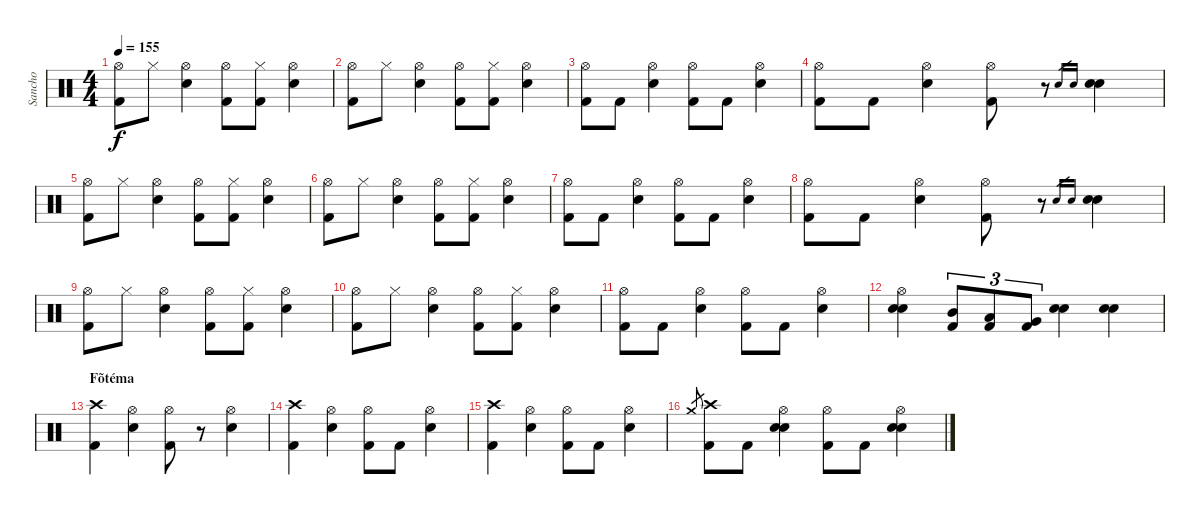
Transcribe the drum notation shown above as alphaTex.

\track ("Sancho" "Sancho") {instrument percussion}
\staff {score}
\articulation defaults
\ts (4 4)
\tempo 155
\clef neutral
\ks c
("Hi-Hat (open)" "Kick (hit) 2").8{dy f} "Hi-Hat (closed)".8 ("Hi-Hat (open)" "Electric Snare (hit)").4 ("Hi-Hat (open)" "Kick (hit) 2").8 ("Hi-Hat (closed)" "Kick (hit) 2").8 ("Hi-Hat (open)" "Electric Snare (hit)").4 |
("Hi-Hat (open)" "Kick (hit) 2").8 "Hi-Hat (closed)".8 ("Hi-Hat (open)" "Electric Snare (hit)").4 ("Hi-Hat (open)" "Kick (hit) 2").8 ("Hi-Hat (closed)" "Kick (hit) 2").8 ("Hi-Hat (open)" "Electric Snare (hit)").4 |
("Hi-Hat (open)" "Kick (hit) 2").8 "Kick (hit) 2".8 ("Hi-Hat (open)" "Electric Snare (hit)").4 ("Hi-Hat (open)" "Kick (hit) 2").8 "Kick (hit) 2".8 ("Hi-Hat (open)" "Electric Snare (hit)").4 |
("Hi-Hat (open)" "Kick (hit) 2").8 "Kick (hit) 2".8 ("Hi-Hat (open)" "Electric Snare (hit)").4 ("Hi-Hat (open)" "Kick (hit) 2").8 r.8 "Snare (hit) 2".16{gr} "Snare (hit) 2".16{gr} ("Electric Snare (hit)" "Electric Snare (hit)").4 |
("Hi-Hat (open)" "Kick (hit) 2").8 "Hi-Hat (closed)".8 ("Hi-Hat (open)" "Electric Snare (hit)").4 ("Hi-Hat (open)" "Kick (hit) 2").8 ("Hi-Hat (closed)" "Kick (hit) 2").8 ("Hi-Hat (open)" "Electric Snare (hit)").4 |
("Hi-Hat (open)" "Kick (hit) 2").8 "Hi-Hat (closed)".8 ("Hi-Hat (open)" "Electric Snare (hit)").4 ("Hi-Hat (open)" "Kick (hit) 2").8 ("Hi-Hat (closed)" "Kick (hit) 2").8 ("Hi-Hat (open)" "Electric Snare (hit)").4 |
("Hi-Hat (open)" "Kick (hit) 2").8 "Kick (hit) 2".8 ("Hi-Hat (open)" "Electric Snare (hit)").4 ("Hi-Hat (open)" "Kick (hit) 2").8 "Kick (hit) 2".8 ("Hi-Hat (open)" "Electric Snare (hit)").4 |
("Hi-Hat (open)" "Kick (hit) 2").8 "Kick (hit) 2".8 ("Hi-Hat (open)" "Electric Snare (hit)").4 ("Hi-Hat (open)" "Kick (hit) 2").8 r.8 "Snare (hit) 2".16{gr} "Snare (hit) 2".16{gr} ("Electric Snare (hit)" "Electric Snare (hit)").4 |
("Hi-Hat (open)" "Kick (hit) 2").8 "Hi-Hat (closed)".8 ("Hi-Hat (open)" "Electric Snare (hit)").4 ("Hi-Hat (open)" "Kick (hit) 2").8 ("Hi-Hat (closed)" "Kick (hit) 2").8 ("Hi-Hat (open)" "Electric Snare (hit)").4 |
("Hi-Hat (open)" "Kick (hit) 2").8 "Hi-Hat (closed)".8 ("Hi-Hat (open)" "Electric Snare (hit)").4 ("Hi-Hat (open)" "Kick (hit) 2").8 ("Hi-Hat (closed)" "Kick (hit) 2").8 ("Hi-Hat (open)" "Electric Snare (hit)").4 |
("Hi-Hat (open)" "Kick (hit) 2").8 "Kick (hit) 2".8 ("Hi-Hat (open)" "Electric Snare (hit)").4 ("Hi-Hat (open)" "Kick (hit) 2").8 "Kick (hit) 2".8 ("Hi-Hat (open)" "Electric Snare (hit)").4 |
("Hi-Hat (open)" "Electric Snare (hit)" "Electric Snare (hit)").4 ("Mid Tom (hit)" "Kick (hit) 2").8{tu (3 2)} ("Low Tom (hit)" "Kick (hit) 2").8{tu (3 2)} ("Very Low Tom (hit)" "Kick (hit) 2").8{tu (3 2)} ("Electric Snare (hit)" "Electric Snare (hit)").4 ("Electric Snare (hit)" "Electric Snare (hit)").4 |
\section ("" "Fõtéma")
("Crash high (hit)" "Kick (hit) 2").4 ("Hi-Hat (open)" "Electric Snare (hit)").4 ("Hi-Hat (open)" "Kick (hit) 2").8 r.8 ("Hi-Hat (open)" "Electric Snare (hit)").4 |
("Crash high (hit)" "Kick (hit) 2").4 ("Hi-Hat (open)" "Electric Snare (hit)").4 ("Hi-Hat (open)" "Kick (hit) 2").8 "Kick (hit) 2".8 ("Hi-Hat (open)" "Electric Snare (hit)").4 |
("Crash high (hit)" "Kick (hit) 2").4 ("Hi-Hat (open)" "Electric Snare (hit)").4 ("Hi-Hat (open)" "Kick (hit) 2").8 "Kick (hit) 2".8 ("Hi-Hat (open)" "Electric Snare (hit)").4 |
"Crash medium (hit)".8{gr} ("Crash high (hit)" "Kick (hit) 2").8 "Kick (hit) 2".8 ("Hi-Hat (open)" "Electric Snare (hit)" "Electric Snare (hit)").4 ("Hi-Hat (open)" "Kick (hit) 2").8 "Kick (hit) 2".8 ("Hi-Hat (open)" "Electric Snare (hit)" "Electric Snare (hit)").4
